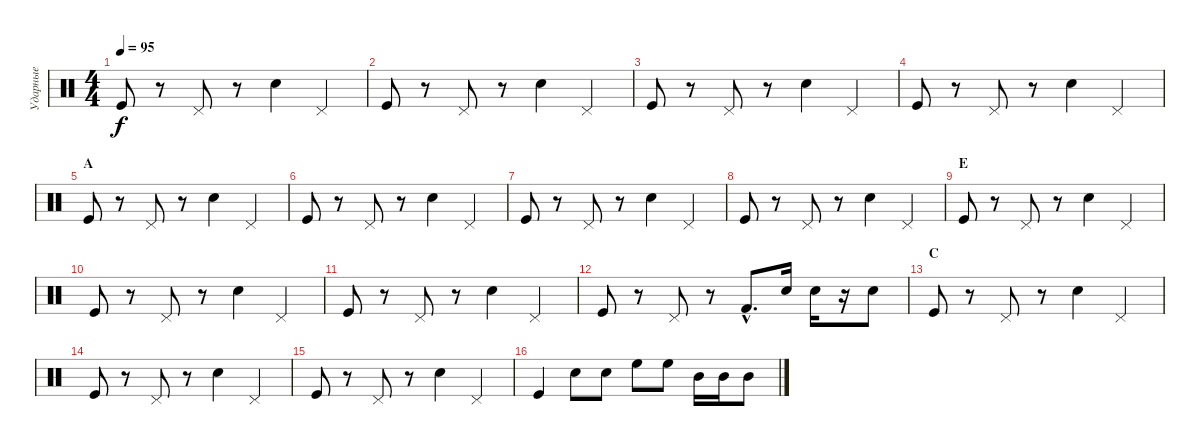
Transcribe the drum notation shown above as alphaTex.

\track ("Ударные" "Ударные") {instrument percussion}
\staff {score}
\articulation defaults
\ts (4 4)
\tempo 95
\clef neutral
\ks c "Kick (hit)".8{dy f}
r.8 "Pedal Hi-Hat (hit)".8 r.8 "Electric Snare (hit)".4 "Pedal Hi-Hat (hit)".4 |
"Kick (hit)".8 r.8 "Pedal Hi-Hat (hit)".8 r.8 "Electric Snare (hit)".4 "Pedal Hi-Hat (hit)".4 |
"Kick (hit)".8 r.8 "Pedal Hi-Hat (hit)".8 r.8 "Electric Snare (hit)".4 "Pedal Hi-Hat (hit)".4 |
"Kick (hit)".8 r.8 "Pedal Hi-Hat (hit)".8 r.8 "Electric Snare (hit)".4 "Pedal Hi-Hat (hit)".4 |
\section ("" "А")
"Kick (hit)".8 r.8 "Pedal Hi-Hat (hit)".8 r.8 "Electric Snare (hit)".4 "Pedal Hi-Hat (hit)".4 |
"Kick (hit)".8 r.8 "Pedal Hi-Hat (hit)".8 r.8 "Electric Snare (hit)".4 "Pedal Hi-Hat (hit)".4 |
"Kick (hit)".8 r.8 "Pedal Hi-Hat (hit)".8 r.8 "Electric Snare (hit)".4 "Pedal Hi-Hat (hit)".4 |
"Kick (hit)".8 r.8 "Pedal Hi-Hat (hit)".8 r.8 "Electric Snare (hit)".4 "Pedal Hi-Hat (hit)".4 |
\section ("" "Е")
"Kick (hit)".8 r.8 "Pedal Hi-Hat (hit)".8 r.8 "Electric Snare (hit)".4 "Pedal Hi-Hat (hit)".4 |
"Kick (hit)".8 r.8 "Pedal Hi-Hat (hit)".8 r.8 "Electric Snare (hit)".4 "Pedal Hi-Hat (hit)".4 |
"Kick (hit)".8 r.8 "Pedal Hi-Hat (hit)".8 r.8 "Electric Snare (hit)".4 "Pedal Hi-Hat (hit)".4 |
"Kick (hit)".8 r.8 "Pedal Hi-Hat (hit)".8 r.8 "Kick (hit) 2"{hac}.8{d} "Snare (hit) 2".16 "Snare (hit) 2".16 r.16 "Snare (hit) 2".8 |
\section ("" "С")
"Kick (hit)".8 r.8 "Pedal Hi-Hat (hit)".8 r.8 "Electric Snare (hit)".4 "Pedal Hi-Hat (hit)".4 |
"Kick (hit)".8 r.8 "Pedal Hi-Hat (hit)".8 r.8 "Electric Snare (hit)".4 "Pedal Hi-Hat (hit)".4 |
"Kick (hit)".8 r.8 "Pedal Hi-Hat (hit)".8 r.8 "Electric Snare (hit)".4 "Pedal Hi-Hat (hit)".4 |
"Kick (hit)".4 "Snare (hit) 2".8 "Snare (hit) 2".8 "High Floor Tom (hit)".8 "High Floor Tom (hit)".8 "Mid Tom (hit)".16 "Mid Tom (hit)".16 "Mid Tom (hit)".8
